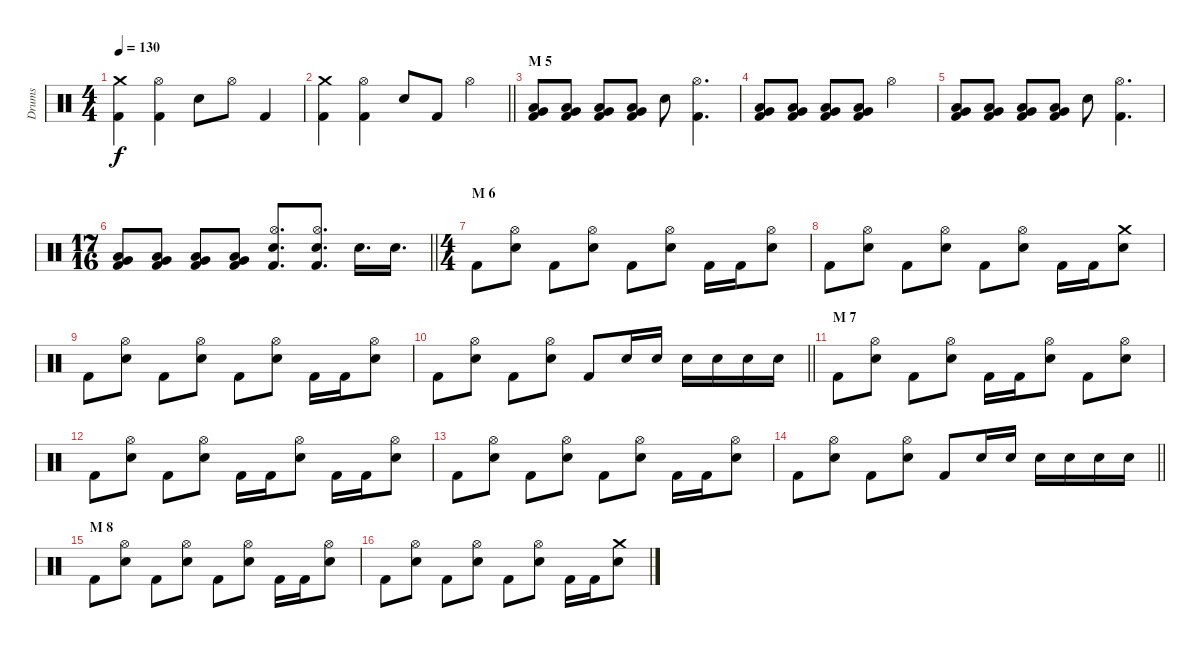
\track ("Drums" "Drums") {instrument percussion}
\staff
\articulation defaults
\ts (4 4)
\tempo 130
\clef neutral
\ks c
("Crash medium (hit)" "Kick (hit) 2").4{dy f} ("Hi-Hat (open)" "Kick (hit) 2").4 "Electric Snare (hit)".8 "Hi-Hat (open)".8 "Kick (hit) 2".4 |
\barLineRight lightlight
("Crash medium (hit)" "Kick (hit) 2").4 ("Hi-Hat (open)" "Kick (hit) 2").4 "Electric Snare (hit)".8 "Kick (hit) 2".8 "Hi-Hat (open)".4 |
\section ("" "M 5")
("Very Low Tom (hit)" "Low Floor Tom (hit)" "Kick (hit) 2").8 ("Very Low Tom (hit)" "Low Floor Tom (hit)" "Kick (hit) 2").8 ("Very Low Tom (hit)" "Low Floor Tom (hit)" "Kick (hit) 2").8 ("Very Low Tom (hit)" "Low Floor Tom (hit)" "Kick (hit) 2").8 "Electric Snare (hit)".8 ("Hi-Hat (open)" "Kick (hit) 2").4{d} |
("Very Low Tom (hit)" "Low Floor Tom (hit)" "Kick (hit) 2").8 ("Very Low Tom (hit)" "Low Floor Tom (hit)" "Kick (hit) 2").8 ("Very Low Tom (hit)" "Low Floor Tom (hit)" "Kick (hit) 2").8 ("Very Low Tom (hit)" "Low Floor Tom (hit)" "Kick (hit) 2").8 "Hi-Hat (open)".2 |
("Very Low Tom (hit)" "Low Floor Tom (hit)" "Kick (hit) 2").8 ("Very Low Tom (hit)" "Low Floor Tom (hit)" "Kick (hit) 2").8 ("Very Low Tom (hit)" "Low Floor Tom (hit)" "Kick (hit) 2").8 ("Very Low Tom (hit)" "Low Floor Tom (hit)" "Kick (hit) 2").8 "Electric Snare (hit)".8 ("Hi-Hat (open)" "Kick (hit) 2").4{d} |
\ts (17 16)
\barLineRight lightlight
("Very Low Tom (hit)" "Low Floor Tom (hit)" "Kick (hit) 2").8 ("Very Low Tom (hit)" "Low Floor Tom (hit)" "Kick (hit) 2").8 ("Very Low Tom (hit)" "Low Floor Tom (hit)" "Kick (hit) 2").8 ("Very Low Tom (hit)" "Low Floor Tom (hit)" "Kick (hit) 2").8 ("Hi-Hat (open)" "Electric Snare (hit)" "Kick (hit) 2").8{d} ("Hi-Hat (open)" "Electric Snare (hit)" "Kick (hit) 2").8{d} "Electric Snare (hit)".16{d} "Electric Snare (hit)".16{d} |
\ts (4 4)
\section ("" "M 6")
"Kick (hit) 2".8 ("Hi-Hat (open)" "Electric Snare (hit)").8 "Kick (hit) 2".8 ("Hi-Hat (open)" "Electric Snare (hit)").8 "Kick (hit) 2".8 ("Hi-Hat (open)" "Electric Snare (hit)").8 "Kick (hit) 2".16 "Kick (hit) 2".16 ("Hi-Hat (open)" "Electric Snare (hit)").8 |
"Kick (hit) 2".8 ("Hi-Hat (open)" "Electric Snare (hit)").8 "Kick (hit) 2".8 ("Hi-Hat (open)" "Electric Snare (hit)").8 "Kick (hit) 2".8 ("Hi-Hat (open)" "Electric Snare (hit)").8 "Kick (hit) 2".16 "Kick (hit) 2".16 ("Crash medium (hit)" "Electric Snare (hit)").8 |
"Kick (hit) 2".8 ("Hi-Hat (open)" "Electric Snare (hit)").8 "Kick (hit) 2".8 ("Hi-Hat (open)" "Electric Snare (hit)").8 "Kick (hit) 2".8 ("Hi-Hat (open)" "Electric Snare (hit)").8 "Kick (hit) 2".16 "Kick (hit) 2".16 ("Hi-Hat (open)" "Electric Snare (hit)").8 |
\barLineRight lightlight "Kick (hit) 2".8
("Hi-Hat (open)" "Electric Snare (hit)").8 "Kick (hit) 2".8 ("Hi-Hat (open)" "Electric Snare (hit)").8 "Kick (hit) 2".8 "Electric Snare (hit)".16 "Electric Snare (hit)".16 "Electric Snare (hit)".16 "Electric Snare (hit)".16 "Electric Snare (hit)".16 "Electric Snare (hit)".16 |
\section ("" "M 7")
"Kick (hit) 2".8 ("Hi-Hat (open)" "Electric Snare (hit)").8 "Kick (hit) 2".8 ("Hi-Hat (open)" "Electric Snare (hit)").8 "Kick (hit) 2".16 "Kick (hit) 2".16 ("Hi-Hat (open)" "Electric Snare (hit)").8 "Kick (hit) 2".8 ("Hi-Hat (open)" "Electric Snare (hit)").8 |
"Kick (hit) 2".8 ("Hi-Hat (open)" "Electric Snare (hit)").8 "Kick (hit) 2".8 ("Hi-Hat (open)" "Electric Snare (hit)").8 "Kick (hit) 2".16 "Kick (hit) 2".16 ("Hi-Hat (open)" "Electric Snare (hit)").8 "Kick (hit) 2".16 "Kick (hit) 2".16 ("Hi-Hat (open)" "Electric Snare (hit)").8 |
"Kick (hit) 2".8 ("Hi-Hat (open)" "Electric Snare (hit)").8 "Kick (hit) 2".8 ("Hi-Hat (open)" "Electric Snare (hit)").8 "Kick (hit) 2".8 ("Hi-Hat (open)" "Electric Snare (hit)").8 "Kick (hit) 2".16 "Kick (hit) 2".16 ("Hi-Hat (open)" "Electric Snare (hit)").8 |
\barLineRight lightlight "Kick (hit) 2".8
("Hi-Hat (open)" "Electric Snare (hit)").8 "Kick (hit) 2".8 ("Hi-Hat (open)" "Electric Snare (hit)").8 "Kick (hit) 2".8 "Electric Snare (hit)".16 "Electric Snare (hit)".16 "Electric Snare (hit)".16 "Electric Snare (hit)".16 "Electric Snare (hit)".16 "Electric Snare (hit)".16 |
\section ("" "M 8")
"Kick (hit) 2".8 ("Hi-Hat (open)" "Electric Snare (hit)").8 "Kick (hit) 2".8 ("Hi-Hat (open)" "Electric Snare (hit)").8 "Kick (hit) 2".8 ("Hi-Hat (open)" "Electric Snare (hit)").8 "Kick (hit) 2".16 "Kick (hit) 2".16 ("Hi-Hat (open)" "Electric Snare (hit)").8 |
"Kick (hit) 2".8 ("Hi-Hat (open)" "Electric Snare (hit)").8 "Kick (hit) 2".8 ("Hi-Hat (open)" "Electric Snare (hit)").8 "Kick (hit) 2".8 ("Hi-Hat (open)" "Electric Snare (hit)").8 "Kick (hit) 2".16 "Kick (hit) 2".16 ("Crash medium (hit)" "Electric Snare (hit)").8
